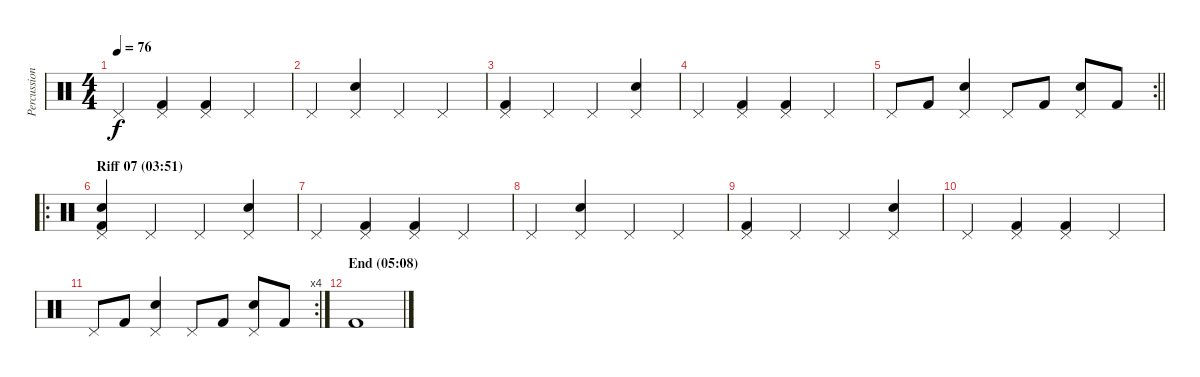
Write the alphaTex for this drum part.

\track ("Percussion" "Percussion") {instrument percussion}
\staff {score}
\articulation defaults
\ts (4 4)
\tempo 76
\clef neutral
\ks c "Pedal Hi-Hat (hit)".4{dy f}
("Kick (hit) 2" "Pedal Hi-Hat (hit)").4 ("Kick (hit) 2" "Pedal Hi-Hat (hit)").4 "Pedal Hi-Hat (hit)".4 |
"Pedal Hi-Hat (hit)".4 ("Snare (hit) 2" "Pedal Hi-Hat (hit)").4 "Pedal Hi-Hat (hit)".4 "Pedal Hi-Hat (hit)".4 |
("Kick (hit) 2" "Pedal Hi-Hat (hit)").4 "Pedal Hi-Hat (hit)".4 "Pedal Hi-Hat (hit)".4 ("Snare (hit) 2" "Pedal Hi-Hat (hit)").4 |
"Pedal Hi-Hat (hit)".4 ("Kick (hit) 2" "Pedal Hi-Hat (hit)").4 ("Kick (hit) 2" "Pedal Hi-Hat (hit)").4 "Pedal Hi-Hat (hit)".4 |
\rc 2
\barLineRight lightlight "Pedal Hi-Hat (hit)".8 "Kick (hit) 2".8
("Snare (hit) 2" "Pedal Hi-Hat (hit)").4 "Pedal Hi-Hat (hit)".8 "Kick (hit) 2".8 ("Snare (hit) 2" "Pedal Hi-Hat (hit)").8 "Kick (hit) 2".8 |
\ro
\section ("" "Riff 07 (03:51)")
("Kick (hit) 2" "Snare (hit) 2" "Pedal Hi-Hat (hit)").4 "Pedal Hi-Hat (hit)".4 "Pedal Hi-Hat (hit)".4 ("Snare (hit) 2" "Pedal Hi-Hat (hit)").4 |
"Pedal Hi-Hat (hit)".4 ("Kick (hit) 2" "Pedal Hi-Hat (hit)").4 ("Kick (hit) 2" "Pedal Hi-Hat (hit)").4 "Pedal Hi-Hat (hit)".4 |
"Pedal Hi-Hat (hit)".4 ("Snare (hit) 2" "Pedal Hi-Hat (hit)").4 "Pedal Hi-Hat (hit)".4 "Pedal Hi-Hat (hit)".4 |
("Kick (hit) 2" "Pedal Hi-Hat (hit)").4 "Pedal Hi-Hat (hit)".4 "Pedal Hi-Hat (hit)".4 ("Snare (hit) 2" "Pedal Hi-Hat (hit)").4 |
"Pedal Hi-Hat (hit)".4 ("Kick (hit) 2" "Pedal Hi-Hat (hit)").4 ("Kick (hit) 2" "Pedal Hi-Hat (hit)").4 "Pedal Hi-Hat (hit)".4 |
\rc 4 "Pedal Hi-Hat (hit)".8 "Kick (hit) 2".8
("Snare (hit) 2" "Pedal Hi-Hat (hit)").4 "Pedal Hi-Hat (hit)".8 "Kick (hit) 2".8 ("Snare (hit) 2" "Pedal Hi-Hat (hit)").8 "Kick (hit) 2".8 |
\section ("" "End (05:08)")
"Kick (hit) 2".1
